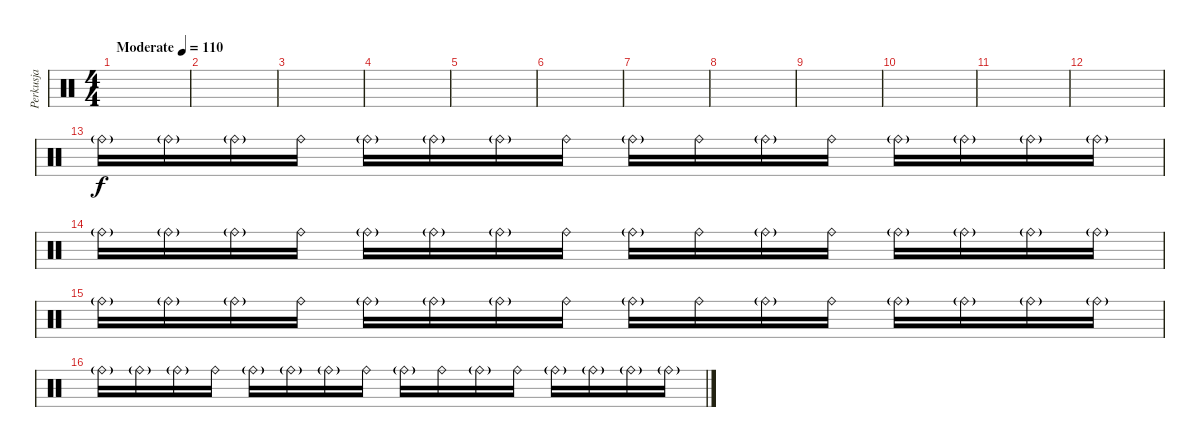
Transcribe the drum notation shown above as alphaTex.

\track ("Perkusja" "Perkusja") {instrument percussion}
\staff {score}
\articulation defaults
\ts (4 4)
\tempo (110 "Moderate")
\clef neutral
\ks c
|
|
|
|
|
|
|
|
|
|
|
|
"Ride (bell)"{g}.16 "Ride (bell)"{g}.16 "Ride (bell)"{g}.16 "Ride (bell)".16 "Ride (bell)"{g}.16 "Ride (bell)"{g}.16 "Ride (bell)"{g}.16 "Ride (bell)".16 "Ride (bell)"{g}.16 "Ride (bell)".16 "Ride (bell)"{g}.16 "Ride (bell)".16 "Ride (bell)"{g}.16 "Ride (bell)"{g}.16 "Ride (bell)"{g}.16 "Ride (bell)"{g}.16 |
"Ride (bell)"{g}.16 "Ride (bell)"{g}.16 "Ride (bell)"{g}.16 "Ride (bell)".16 "Ride (bell)"{g}.16 "Ride (bell)"{g}.16 "Ride (bell)"{g}.16 "Ride (bell)".16 "Ride (bell)"{g}.16 "Ride (bell)".16 "Ride (bell)"{g}.16 "Ride (bell)".16 "Ride (bell)"{g}.16 "Ride (bell)"{g}.16 "Ride (bell)"{g}.16 "Ride (bell)"{g}.16 |
"Ride (bell)"{g}.16 "Ride (bell)"{g}.16 "Ride (bell)"{g}.16 "Ride (bell)".16 "Ride (bell)"{g}.16 "Ride (bell)"{g}.16 "Ride (bell)"{g}.16 "Ride (bell)".16 "Ride (bell)"{g}.16 "Ride (bell)".16 "Ride (bell)"{g}.16 "Ride (bell)".16 "Ride (bell)"{g}.16 "Ride (bell)"{g}.16 "Ride (bell)"{g}.16 "Ride (bell)"{g}.16 |
"Ride (bell)"{g}.16 "Ride (bell)"{g}.16 "Ride (bell)"{g}.16 "Ride (bell)".16 "Ride (bell)"{g}.16 "Ride (bell)"{g}.16 "Ride (bell)"{g}.16 "Ride (bell)".16 "Ride (bell)"{g}.16 "Ride (bell)".16 "Ride (bell)"{g}.16 "Ride (bell)".16 "Ride (bell)"{g}.16 "Ride (bell)"{g}.16 "Ride (bell)"{g}.16 "Ride (bell)"{g}.16
